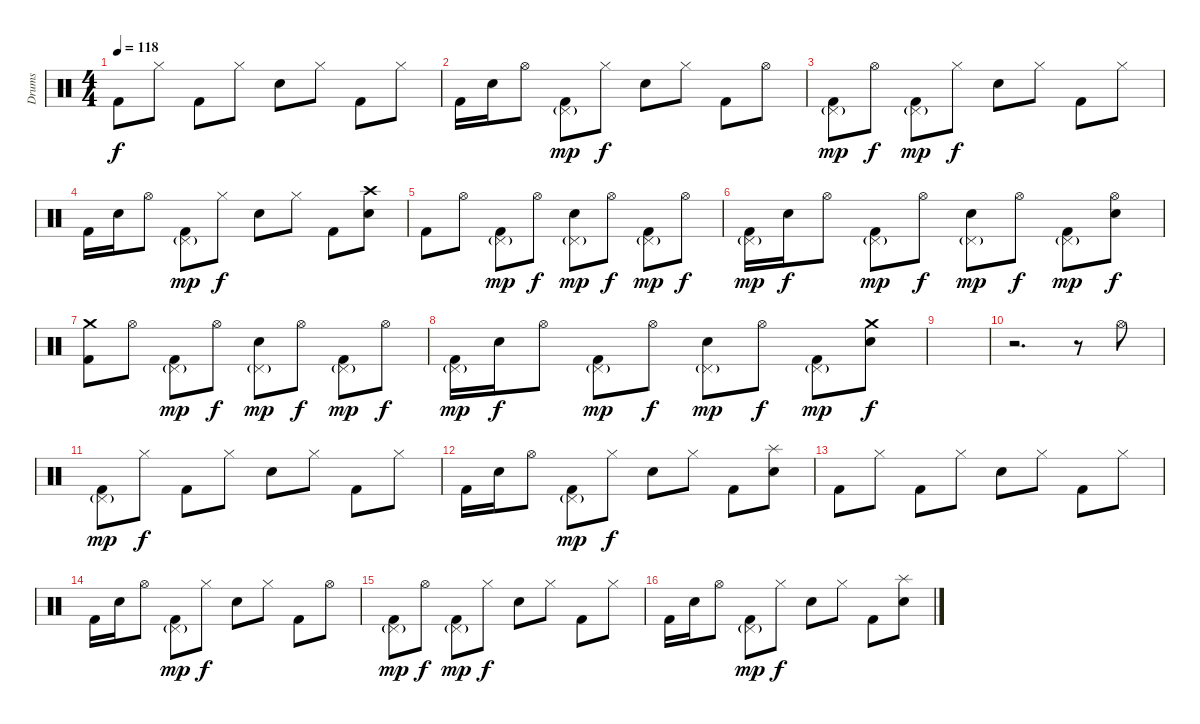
\track ("Drums" "Drums") {instrument percussion bank 5}
\staff {score}
\articulation defaults
\ts (4 4)
\tempo 118
\clef neutral
\ks c "Kick (hit) 2".8{dy f} "Hi-Hat (closed)".8 "Kick (hit) 2".8 "Hi-Hat (closed)".8 "Snare (hit) 2".8 "Hi-Hat (closed)".8 "Kick (hit) 2".8 "Hi-Hat (closed)".8
|
"Kick (hit) 2".16 "Snare (hit) 2".16 "Hi-Hat (open)".8 ("Pedal Hi-Hat (hit)"{g} "Kick (hit) 2").8{dy mp} "Hi-Hat (closed)".8{dy f} "Snare (hit) 2".8 "Hi-Hat (closed)".8 "Kick (hit) 2".8 "Hi-Hat (open)".8 |
("Pedal Hi-Hat (hit)"{g} "Kick (hit) 2").8{dy mp} "Hi-Hat (open)".8{dy f} ("Pedal Hi-Hat (hit)"{g} "Kick (hit) 2").8{dy mp} "Hi-Hat (closed)".8{dy f} "Snare (hit) 2".8 "Hi-Hat (closed)".8 "Kick (hit) 2".8 "Hi-Hat (closed)".8 |
"Kick (hit) 2".16 "Snare (hit) 2".16 "Hi-Hat (open)".8 ("Pedal Hi-Hat (hit)"{g} "Kick (hit) 2").8{dy mp} "Hi-Hat (closed)".8{dy f} "Snare (hit) 2".8 "Hi-Hat (closed)".8 "Kick (hit) 2".8 ("Crash high (hit)" "Snare (hit) 2").8 |
"Kick (hit) 2".8 "Hi-Hat (open)".8 ("Pedal Hi-Hat (hit)"{g} "Kick (hit) 2").8{dy mp} "Hi-Hat (open)".8{dy f} ("Pedal Hi-Hat (hit)"{g} "Snare (hit) 2").8{dy mp} "Hi-Hat (open)".8{dy f} ("Pedal Hi-Hat (hit)"{g} "Kick (hit) 2").8{dy mp} "Hi-Hat (open)".8{dy f} |
("Pedal Hi-Hat (hit)"{g} "Kick (hit) 2").16{dy mp} "Snare (hit) 2".16{dy f} "Hi-Hat (open)".8 ("Pedal Hi-Hat (hit)"{g} "Kick (hit) 2").8{dy mp} "Hi-Hat (open)".8{dy f} ("Pedal Hi-Hat (hit)"{g} "Snare (hit) 2").8{dy mp} "Hi-Hat (open)".8{dy f} ("Pedal Hi-Hat (hit)"{g} "Kick (hit) 2").8{dy mp} ("Hi-Hat (open)" "Snare (hit) 2").8{dy f} |
("Crash medium (hit)" "Kick (hit) 2").8 "Hi-Hat (open)".8 ("Pedal Hi-Hat (hit)"{g} "Kick (hit) 2").8{dy mp} "Hi-Hat (open)".8{dy f} ("Pedal Hi-Hat (hit)"{g} "Snare (hit) 2").8{dy mp} "Hi-Hat (open)".8{dy f} ("Pedal Hi-Hat (hit)"{g} "Kick (hit) 2").8{dy mp} "Hi-Hat (open)".8{dy f} |
("Pedal Hi-Hat (hit)"{g} "Kick (hit) 2").16{dy mp} "Snare (hit) 2".16{dy f} "Hi-Hat (open)".8 ("Pedal Hi-Hat (hit)"{g} "Kick (hit) 2").8{dy mp} "Hi-Hat (open)".8{dy f} ("Pedal Hi-Hat (hit)"{g} "Snare (hit) 2").8{dy mp} "Hi-Hat (open)".8{dy f} ("Pedal Hi-Hat (hit)"{g} "Kick (hit) 2").8{dy mp} ("Crash medium (hit)" "Snare (hit) 2").8{dy f} |
|
r.2{d} r.8 "Hi-Hat (open)".8 |
("Pedal Hi-Hat (hit)"{g} "Kick (hit) 2").8{dy mp} "Hi-Hat (closed)".8{dy f} "Kick (hit) 2".8 "Hi-Hat (closed)".8 "Snare (hit) 2".8 "Hi-Hat (closed)".8 "Kick (hit) 2".8 "Hi-Hat (closed)".8 |
"Kick (hit) 2".16 "Snare (hit) 2".16 "Hi-Hat (open)".8 ("Pedal Hi-Hat (hit)"{g} "Kick (hit) 2").8{dy mp} "Hi-Hat (closed)".8{dy f} "Snare (hit) 2".8 "Hi-Hat (closed)".8 "Kick (hit) 2".8 ("Splash (hit)" "Snare (hit) 2").8 |
"Kick (hit) 2".8 "Hi-Hat (closed)".8 "Kick (hit) 2".8 "Hi-Hat (closed)".8 "Snare (hit) 2".8 "Hi-Hat (closed)".8 "Kick (hit) 2".8 "Hi-Hat (closed)".8 |
"Kick (hit) 2".16 "Snare (hit) 2".16 "Hi-Hat (open)".8 ("Pedal Hi-Hat (hit)"{g} "Kick (hit) 2").8{dy mp} "Hi-Hat (closed)".8{dy f} "Snare (hit) 2".8 "Hi-Hat (closed)".8 "Kick (hit) 2".8 "Hi-Hat (open)".8 |
("Pedal Hi-Hat (hit)"{g} "Kick (hit) 2").8{dy mp} "Hi-Hat (open)".8{dy f} ("Pedal Hi-Hat (hit)"{g} "Kick (hit) 2").8{dy mp} "Hi-Hat (closed)".8{dy f} "Snare (hit) 2".8 "Hi-Hat (closed)".8 "Kick (hit) 2".8 "Hi-Hat (closed)".8 |
"Kick (hit) 2".16 "Snare (hit) 2".16 "Hi-Hat (open)".8 ("Pedal Hi-Hat (hit)"{g} "Kick (hit) 2").8{dy mp} "Hi-Hat (closed)".8{dy f} "Snare (hit) 2".8 "Hi-Hat (closed)".8 "Kick (hit) 2".8 ("Splash (hit)" "Snare (hit) 2").8
